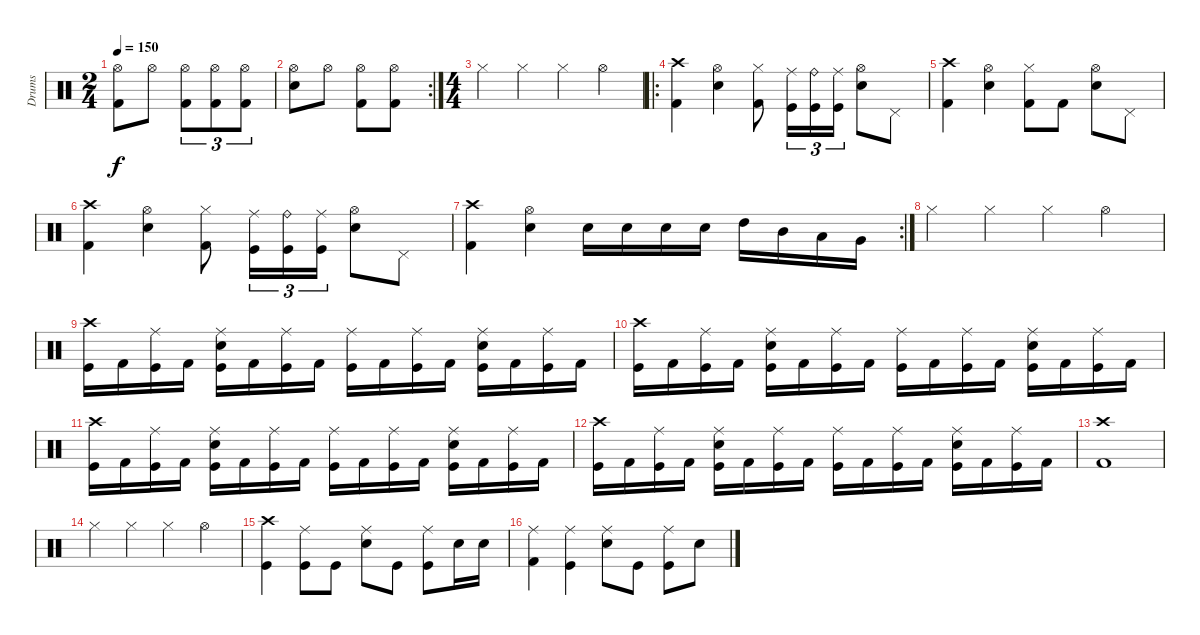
\track ("Drums" "Drums") {instrument percussion}
\staff {score}
\articulation defaults
\ts (2 4)
\tempo 150
\clef neutral
\ks c
("Hi-Hat (open)" "Kick (hit) 2").8{dy f} "Hi-Hat (open)".8 ("Hi-Hat (open)" "Kick (hit) 2").8{tu (3 2)} ("Hi-Hat (open)" "Kick (hit) 2").8{tu (3 2)} ("Hi-Hat (open)" "Kick (hit) 2").8{tu (3 2)} |
\rc 2
("Hi-Hat (open)" "Snare (hit) 2").8 "Hi-Hat (open)".8 ("Hi-Hat (open)" "Kick (hit) 2").8 ("Hi-Hat (open)" "Kick (hit) 2").8 |
\ts (4 4)
"Hi-Hat (closed)".4 "Hi-Hat (closed)".4 "Hi-Hat (closed)".4 "Hi-Hat (open)".4 |
\ro
("Crash high (hit)" "Kick (hit) 2").4 ("Hi-Hat (open)" "Snare (hit) 2").4 ("Hi-Hat (closed)" "Kick (hit) 2").8 ("Ride (middle)" "Kick (hit)").16{tu (3 2)} ("Ride (bell)" "Kick (hit)").16{tu (3 2)} ("Ride (middle)" "Kick (hit)").16{tu (3 2)} ("Hi-Hat (open)" "Snare (hit) 2").8 "Pedal Hi-Hat (hit)".8 |
("Crash high (hit)" "Kick (hit) 2").4 ("Hi-Hat (open)" "Snare (hit) 2").4 ("Hi-Hat (closed)" "Kick (hit) 2").8 "Kick (hit) 2".8 ("Hi-Hat (open)" "Snare (hit) 2").8 "Pedal Hi-Hat (hit)".8 |
("Crash high (hit)" "Kick (hit) 2").4 ("Hi-Hat (open)" "Snare (hit) 2").4 ("Hi-Hat (closed)" "Kick (hit) 2").8 ("Ride (middle)" "Kick (hit)").16{tu (3 2)} ("Ride (bell)" "Kick (hit)").16{tu (3 2)} ("Ride (middle)" "Kick (hit)").16{tu (3 2)} ("Hi-Hat (open)" "Snare (hit) 2").8 "Pedal Hi-Hat (hit)".8 |
\rc 2
("Crash high (hit)" "Kick (hit) 2").4 ("Hi-Hat (open)" "Snare (hit) 2").4 "Snare (hit) 2".16 "Snare (hit) 2".16 "Snare (hit) 2".16 "Snare (hit) 2".16 "High Tom (hit)".16 "Mid Tom (hit)".16 "Low Tom (hit)".16 "Very Low Tom (hit)".16 |
"Hi-Hat (closed)".4 "Hi-Hat (closed)".4 "Hi-Hat (closed)".4 "Hi-Hat (open)".4 |
("Crash high (hit)" "Kick (hit)").16 "Kick (hit) 2".16 ("Ride (middle)" "Kick (hit)").16 "Kick (hit) 2".16 ("Ride (middle)" "Snare (hit) 2" "Kick (hit)").16 "Kick (hit) 2".16 ("Ride (middle)" "Kick (hit)").16 "Kick (hit) 2".16 ("Ride (middle)" "Kick (hit)").16 "Kick (hit) 2".16 ("Ride (middle)" "Kick (hit)").16 "Kick (hit) 2".16 ("Ride (middle)" "Snare (hit) 2" "Kick (hit)").16 "Kick (hit) 2".16 ("Ride (middle)" "Kick (hit)").16 "Kick (hit) 2".16 |
("Crash high (hit)" "Kick (hit)").16 "Kick (hit) 2".16 ("Ride (middle)" "Kick (hit)").16 "Kick (hit) 2".16 ("Ride (middle)" "Snare (hit) 2" "Kick (hit)").16 "Kick (hit) 2".16 ("Ride (middle)" "Kick (hit)").16 "Kick (hit) 2".16 ("Ride (middle)" "Kick (hit)").16 "Kick (hit) 2".16 ("Ride (middle)" "Kick (hit)").16 "Kick (hit) 2".16 ("Ride (middle)" "Snare (hit) 2" "Kick (hit)").16 "Kick (hit) 2".16 ("Ride (middle)" "Kick (hit)").16 "Kick (hit) 2".16 |
("Crash high (hit)" "Kick (hit)").16 "Kick (hit) 2".16 ("Ride (middle)" "Kick (hit)").16 "Kick (hit) 2".16 ("Ride (middle)" "Snare (hit) 2" "Kick (hit)").16 "Kick (hit) 2".16 ("Ride (middle)" "Kick (hit)").16 "Kick (hit) 2".16 ("Ride (middle)" "Kick (hit)").16 "Kick (hit) 2".16 ("Ride (middle)" "Kick (hit)").16 "Kick (hit) 2".16 ("Ride (middle)" "Snare (hit) 2" "Kick (hit)").16 "Kick (hit) 2".16 ("Ride (middle)" "Kick (hit)").16 "Kick (hit) 2".16 |
("Crash high (hit)" "Kick (hit)").16 "Kick (hit) 2".16 ("Ride (middle)" "Kick (hit)").16 "Kick (hit) 2".16 ("Ride (middle)" "Snare (hit) 2" "Kick (hit)").16 "Kick (hit) 2".16 ("Ride (middle)" "Kick (hit)").16 "Kick (hit) 2".16 ("Ride (middle)" "Kick (hit)").16 "Kick (hit) 2".16 ("Ride (middle)" "Kick (hit)").16 "Kick (hit) 2".16 ("Ride (middle)" "Snare (hit) 2" "Kick (hit)").16 "Kick (hit) 2".16 ("Ride (middle)" "Kick (hit)").16 "Kick (hit) 2".16 |
("Crash high (hit)" "Kick (hit) 2").1 |
"Hi-Hat (closed)".4 "Hi-Hat (closed)".4 "Hi-Hat (closed)".4 "Hi-Hat (open)".4 |
("Crash high (hit)" "Kick (hit)").4 ("Ride (middle)" "Kick (hit)").8 "Kick (hit)".8 ("Ride (middle)" "Snare (hit) 2").8 "Kick (hit)".8 ("Ride (middle)" "Kick (hit)").8 "Snare (hit) 2".16 "Snare (hit) 2".16 |
("Ride (middle)" "Kick (hit) 2").4 ("Ride (middle)" "Kick (hit)").4 ("Ride (middle)" "Snare (hit) 2").8 "Kick (hit)".8 ("Ride (middle)" "Kick (hit)").8 "Snare (hit) 2".8
